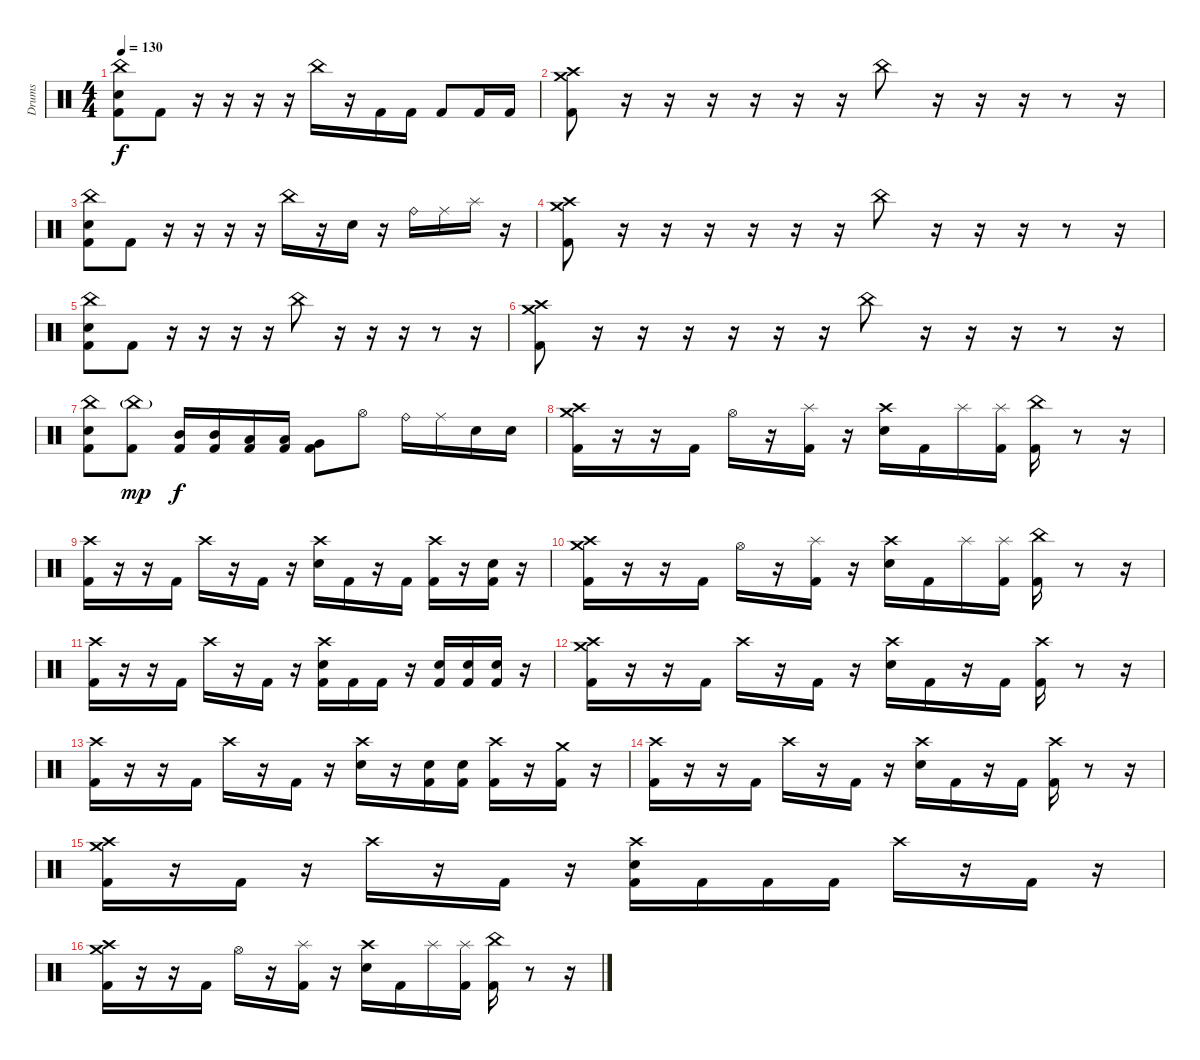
\track ("Drums" "Drums") {instrument percussion}
\staff {score}
\articulation defaults
\ts (4 4)
\tempo 130
\clef neutral
\ks c
("China (hit)" "Electric Snare (hit)" "Kick (hit) 2").8{dy f} "Kick (hit) 2".8 r.16 r.16 r.16 r.16 "China (hit)".16 r.16 "Kick (hit) 2".16 "Kick (hit) 2".16 "Kick (hit) 2".8 "Kick (hit) 2".16 "Kick (hit) 2".16 |
("Crash medium (hit)" "Crash high (hit)" "Kick (hit) 2").8 r.16 r.16 r.16 r.16 r.16 r.16 "China (hit)".8 r.16 r.16 r.16 r.8 r.16 |
("China (hit)" "Electric Snare (hit)" "Kick (hit) 2").8 "Kick (hit) 2".8 r.16 r.16 r.16 r.16 "China (hit)".16 r.16 "Electric Snare (hit)".16 r.16 "Ride (bell)".16 "Ride (middle)".16 "Splash (hit)".16 r.16 |
("Crash medium (hit)" "Crash high (hit)" "Kick (hit) 2").8 r.16 r.16 r.16 r.16 r.16 r.16 "China (hit)".8 r.16 r.16 r.16 r.8 r.16 |
("China (hit)" "Electric Snare (hit)" "Kick (hit) 2").8 "Kick (hit) 2".8 r.16 r.16 r.16 r.16 "China (hit)".8 r.16 r.16 r.16 r.8 r.16 |
("Crash medium (hit)" "Crash high (hit)" "Kick (hit) 2").8 r.16 r.16 r.16 r.16 r.16 r.16 "China (hit)".8 r.16 r.16 r.16 r.8 r.16 |
("China (hit)" "Electric Snare (hit)" "Kick (hit) 2").8 ("China (hit)"{g} "Kick (hit) 2").8{dy mp} ("Mid Tom (hit)" "Kick (hit) 2").16{dy f} ("Mid Tom (hit)" "Kick (hit) 2").16 ("Low Tom (hit)" "Kick (hit) 2").16 ("Low Tom (hit)" "Kick (hit) 2").16 ("Very Low Tom (hit)" "Kick (hit) 2").8 "Hi-Hat (open)".8 "Ride (bell)".16 "Ride (middle)".16 "Electric Snare (hit)".16 "Electric Snare (hit)".16 |
("Crash high (hit)" "Crash medium (hit)" "Kick (hit) 2").16 r.16 r.16 "Kick (hit) 2".16 "Hi-Hat (open)".16 r.16 ("Splash (hit)" "Kick (hit) 2").16 r.16 ("Crash high (hit)" "Electric Snare (hit)").16 "Kick (hit) 2".16 "Splash (hit)".16 ("Splash (hit)" "Kick (hit) 2").16 ("China (hit)" "Kick (hit) 2").16 r.8 r.16 |
("Crash high (hit)" "Kick (hit) 2").16 r.16 r.16 "Kick (hit) 2".16 "Crash high (hit)".16 r.16 "Kick (hit) 2".16 r.16 ("Crash high (hit)" "Electric Snare (hit)").16 "Kick (hit) 2".16 r.16 "Kick (hit) 2".16 ("Crash high (hit)" "Kick (hit) 2").16 r.16 ("Electric Snare (hit)" "Kick (hit) 2").16 r.16 |
("Crash high (hit)" "Crash medium (hit)" "Kick (hit) 2").16 r.16 r.16 "Kick (hit) 2".16 "Hi-Hat (open)".16 r.16 ("Splash (hit)" "Kick (hit) 2").16 r.16 ("Crash high (hit)" "Electric Snare (hit)").16 "Kick (hit) 2".16 "Splash (hit)".16 ("Splash (hit)" "Kick (hit) 2").16 ("China (hit)" "Kick (hit) 2").16 r.8 r.16 |
("Crash high (hit)" "Kick (hit) 2").16 r.16 r.16 "Kick (hit) 2".16 "Crash high (hit)".16 r.16 "Kick (hit) 2".16 r.16 ("Crash high (hit)" "Electric Snare (hit)" "Kick (hit) 2").16 "Kick (hit) 2".16 "Kick (hit) 2".16 r.16 ("Electric Snare (hit)" "Kick (hit) 2").16 ("Electric Snare (hit)" "Kick (hit) 2").16 ("Electric Snare (hit)" "Kick (hit) 2").16 r.16 |
("Crash high (hit)" "Crash medium (hit)" "Kick (hit) 2").16 r.16 r.16 "Kick (hit) 2".16 "Crash high (hit)".16 r.16 "Kick (hit) 2".16 r.16 ("Crash high (hit)" "Electric Snare (hit)").16 "Kick (hit) 2".16 r.16 "Kick (hit) 2".16 ("Crash high (hit)" "Kick (hit) 2").16 r.8 r.16 |
("Crash high (hit)" "Kick (hit) 2").16 r.16 r.16 "Kick (hit) 2".16 "Crash high (hit)".16 r.16 "Kick (hit) 2".16 r.16 ("Crash high (hit)" "Electric Snare (hit)").16 r.16 ("Electric Snare (hit)" "Kick (hit) 2").16 ("Electric Snare (hit)" "Kick (hit) 2").16 ("Crash high (hit)" "Kick (hit) 2").16 r.16 ("Crash medium (hit)" "Kick (hit) 2").16 r.16 |
("Crash high (hit)" "Kick (hit) 2").16 r.16 r.16 "Kick (hit) 2".16 "Crash high (hit)".16 r.16 "Kick (hit) 2".16 r.16 ("Crash high (hit)" "Electric Snare (hit)").16 "Kick (hit) 2".16 r.16 "Kick (hit) 2".16 ("Crash high (hit)" "Kick (hit) 2").16 r.8 r.16 |
("Crash high (hit)" "Crash medium (hit)" "Kick (hit) 2").16 r.16 "Kick (hit) 2".16 r.16 "Crash high (hit)".16 r.16 "Kick (hit) 2".16 r.16 ("Crash high (hit)" "Electric Snare (hit)" "Kick (hit) 2").16 "Kick (hit) 2".16 "Kick (hit) 2".16 "Kick (hit) 2".16 "Crash high (hit)".16 r.16 "Kick (hit) 2".16 r.16 |
("Crash high (hit)" "Crash medium (hit)" "Kick (hit) 2").16 r.16 r.16 "Kick (hit) 2".16 "Hi-Hat (open)".16 r.16 ("Splash (hit)" "Kick (hit) 2").16 r.16 ("Crash high (hit)" "Electric Snare (hit)").16 "Kick (hit) 2".16 "Splash (hit)".16 ("Splash (hit)" "Kick (hit) 2").16 ("China (hit)" "Kick (hit) 2").16 r.8 r.16
